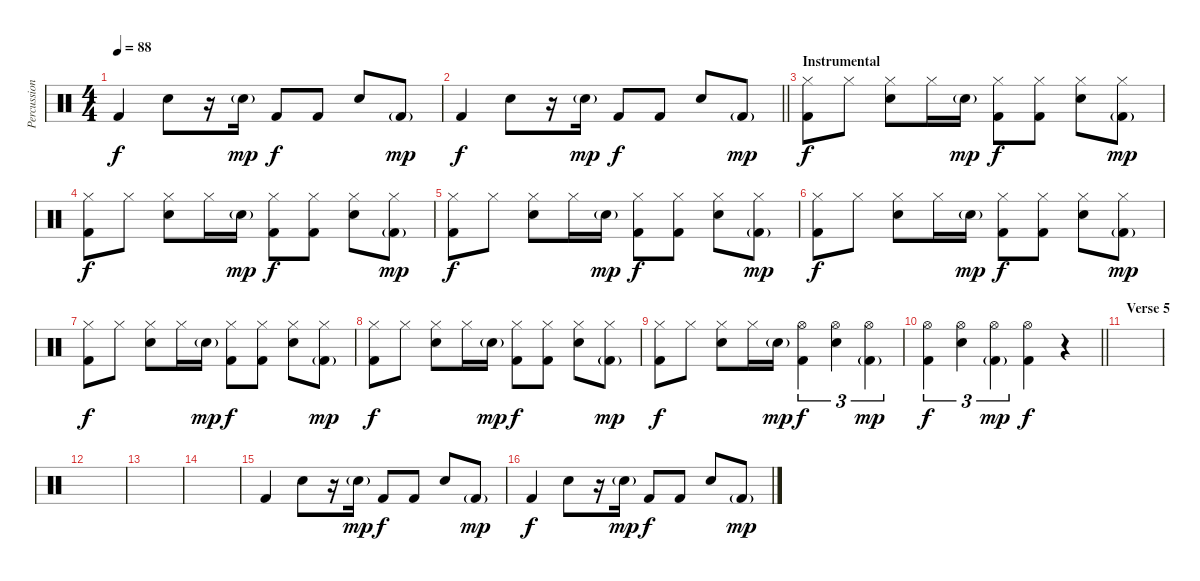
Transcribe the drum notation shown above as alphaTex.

\track ("Percussion" "Percussion") {instrument percussion}
\staff {score}
\articulation defaults
\ts (4 4)
\tempo 88
\clef neutral
\ks c "Kick (hit) 2".4{dy f} "Snare (hit) 2".8
r.16 "Snare (hit) 2"{g}.16{dy mp} "Kick (hit) 2".8{dy f} "Kick (hit) 2".8 "Snare (hit) 2".8 "Kick (hit) 2"{g}.8{dy mp} |
\barLineRight lightlight "Kick (hit) 2".4{dy f} "Snare (hit) 2".8
r.16 "Snare (hit) 2"{g}.16{dy mp} "Kick (hit) 2".8{dy f} "Kick (hit) 2".8 "Snare (hit) 2".8 "Kick (hit) 2"{g}.8{dy mp} |
\section ("" "Instrumental")
("Hi-Hat (closed)" "Kick (hit) 2").8{dy f} "Hi-Hat (closed)".8 ("Hi-Hat (closed)" "Snare (hit) 2").8 "Hi-Hat (closed)".16 "Snare (hit) 2"{g}.16{dy mp} ("Hi-Hat (closed)" "Kick (hit) 2").8{dy f} ("Hi-Hat (closed)" "Kick (hit) 2").8 ("Hi-Hat (closed)" "Snare (hit) 2").8 ("Hi-Hat (closed)" "Kick (hit) 2"{g}).8{dy mp} |
("Hi-Hat (closed)" "Kick (hit) 2").8{dy f} "Hi-Hat (closed)".8 ("Hi-Hat (closed)" "Snare (hit) 2").8 "Hi-Hat (closed)".16 "Snare (hit) 2"{g}.16{dy mp} ("Hi-Hat (closed)" "Kick (hit) 2").8{dy f} ("Hi-Hat (closed)" "Kick (hit) 2").8 ("Hi-Hat (closed)" "Snare (hit) 2").8 ("Hi-Hat (closed)" "Kick (hit) 2"{g}).8{dy mp} |
("Hi-Hat (closed)" "Kick (hit) 2").8{dy f} "Hi-Hat (closed)".8 ("Hi-Hat (closed)" "Snare (hit) 2").8 "Hi-Hat (closed)".16 "Snare (hit) 2"{g}.16{dy mp} ("Hi-Hat (closed)" "Kick (hit) 2").8{dy f} ("Hi-Hat (closed)" "Kick (hit) 2").8 ("Hi-Hat (closed)" "Snare (hit) 2").8 ("Hi-Hat (closed)" "Kick (hit) 2"{g}).8{dy mp} |
("Hi-Hat (closed)" "Kick (hit) 2").8{dy f} "Hi-Hat (closed)".8 ("Hi-Hat (closed)" "Snare (hit) 2").8 "Hi-Hat (closed)".16 "Snare (hit) 2"{g}.16{dy mp} ("Hi-Hat (closed)" "Kick (hit) 2").8{dy f} ("Hi-Hat (closed)" "Kick (hit) 2").8 ("Hi-Hat (closed)" "Snare (hit) 2").8 ("Hi-Hat (closed)" "Kick (hit) 2"{g}).8{dy mp} |
("Hi-Hat (closed)" "Kick (hit) 2").8{dy f} "Hi-Hat (closed)".8 ("Hi-Hat (closed)" "Snare (hit) 2").8 "Hi-Hat (closed)".16 "Snare (hit) 2"{g}.16{dy mp} ("Hi-Hat (closed)" "Kick (hit) 2").8{dy f} ("Hi-Hat (closed)" "Kick (hit) 2").8 ("Hi-Hat (closed)" "Snare (hit) 2").8 ("Hi-Hat (closed)" "Kick (hit) 2"{g}).8{dy mp} |
("Hi-Hat (closed)" "Kick (hit) 2").8{dy f} "Hi-Hat (closed)".8 ("Hi-Hat (closed)" "Snare (hit) 2").8 "Hi-Hat (closed)".16 "Snare (hit) 2"{g}.16{dy mp} ("Hi-Hat (closed)" "Kick (hit) 2").8{dy f} ("Hi-Hat (closed)" "Kick (hit) 2").8 ("Hi-Hat (closed)" "Snare (hit) 2").8 ("Hi-Hat (closed)" "Kick (hit) 2"{g}).8{dy mp} |
("Hi-Hat (closed)" "Kick (hit) 2").8{dy f} "Hi-Hat (closed)".8 ("Hi-Hat (closed)" "Snare (hit) 2").8 "Hi-Hat (closed)".16 "Snare (hit) 2"{g}.16{dy mp} ("Hi-Hat (open)" "Kick (hit) 2").4{tu (3 2) dy f} ("Hi-Hat (open)" "Snare (hit) 2").4{tu (3 2)} ("Hi-Hat (open)" "Kick (hit) 2"{g}).4{tu (3 2) dy mp} |
\barLineRight lightlight
("Hi-Hat (open)" "Kick (hit) 2").4{tu (3 2) dy f} ("Hi-Hat (open)" "Snare (hit) 2").4{tu (3 2)} ("Hi-Hat (open)" "Kick (hit) 2"{g}).4{tu (3 2) dy mp} ("Hi-Hat (open)" "Kick (hit) 2").4{dy f} r.4 |
\section ("" "Verse 5")
|
|
|
|
"Kick (hit) 2".4 "Snare (hit) 2".8 r.16 "Snare (hit) 2"{g}.16{dy mp} "Kick (hit) 2".8{dy f} "Kick (hit) 2".8 "Snare (hit) 2".8 "Kick (hit) 2"{g}.8{dy mp} |
"Kick (hit) 2".4{dy f} "Snare (hit) 2".8 r.16 "Snare (hit) 2"{g}.16{dy mp} "Kick (hit) 2".8{dy f} "Kick (hit) 2".8 "Snare (hit) 2".8 "Kick (hit) 2"{g}.8{dy mp}
